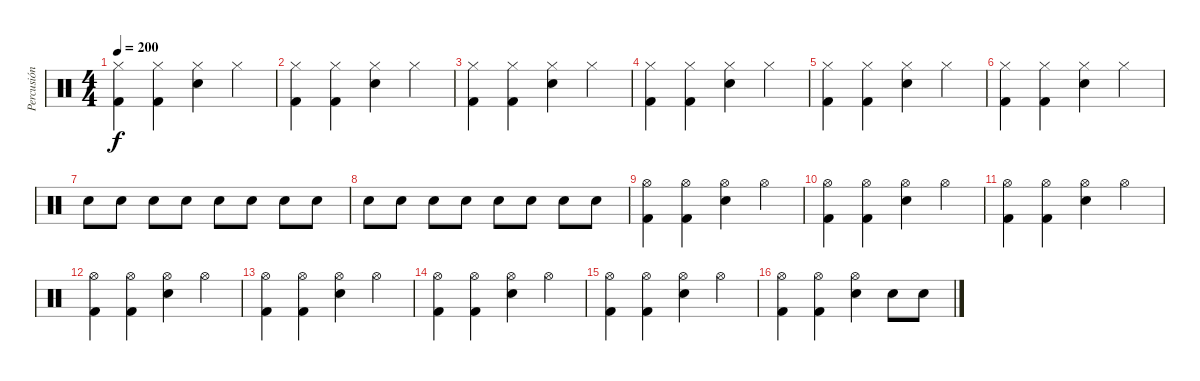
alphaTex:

\track ("Percusión" "Percusión") {instrument percussion}
\staff {score}
\articulation defaults
\ts (4 4)
\tempo 200
\clef neutral
\ks c
("Hi-Hat (closed)" "Kick (hit) 2").4{dy f} ("Hi-Hat (closed)" "Kick (hit) 2").4 ("Hi-Hat (closed)" "Electric Snare (hit)").4 "Hi-Hat (closed)".4 |
("Hi-Hat (closed)" "Kick (hit) 2").4 ("Hi-Hat (closed)" "Kick (hit) 2").4 ("Hi-Hat (closed)" "Electric Snare (hit)").4 "Hi-Hat (closed)".4 |
("Hi-Hat (closed)" "Kick (hit) 2").4 ("Hi-Hat (closed)" "Kick (hit) 2").4 ("Hi-Hat (closed)" "Electric Snare (hit)").4 "Hi-Hat (closed)".4 |
("Hi-Hat (closed)" "Kick (hit) 2").4 ("Hi-Hat (closed)" "Kick (hit) 2").4 ("Hi-Hat (closed)" "Electric Snare (hit)").4 "Hi-Hat (closed)".4 |
("Hi-Hat (closed)" "Kick (hit) 2").4 ("Hi-Hat (closed)" "Kick (hit) 2").4 ("Hi-Hat (closed)" "Electric Snare (hit)").4 "Hi-Hat (closed)".4 |
("Hi-Hat (closed)" "Kick (hit) 2").4 ("Hi-Hat (closed)" "Kick (hit) 2").4 ("Hi-Hat (closed)" "Electric Snare (hit)").4 "Hi-Hat (closed)".4 |
"Electric Snare (hit)".8 "Electric Snare (hit)".8 "Electric Snare (hit)".8 "Electric Snare (hit)".8 "Electric Snare (hit)".8 "Electric Snare (hit)".8 "Electric Snare (hit)".8 "Electric Snare (hit)".8 |
"Electric Snare (hit)".8 "Electric Snare (hit)".8 "Electric Snare (hit)".8 "Electric Snare (hit)".8 "Electric Snare (hit)".8 "Electric Snare (hit)".8 "Electric Snare (hit)".8 "Electric Snare (hit)".8 |
("Hi-Hat (open)" "Kick (hit) 2").4 ("Hi-Hat (open)" "Kick (hit) 2").4 ("Hi-Hat (open)" "Electric Snare (hit)").4 "Hi-Hat (open)".4 |
("Hi-Hat (open)" "Kick (hit) 2").4 ("Hi-Hat (open)" "Kick (hit) 2").4 ("Hi-Hat (open)" "Electric Snare (hit)").4 "Hi-Hat (open)".4 |
("Hi-Hat (open)" "Kick (hit) 2").4 ("Hi-Hat (open)" "Kick (hit) 2").4 ("Hi-Hat (open)" "Electric Snare (hit)").4 "Hi-Hat (open)".4 |
("Hi-Hat (open)" "Kick (hit) 2").4 ("Hi-Hat (open)" "Kick (hit) 2").4 ("Hi-Hat (open)" "Electric Snare (hit)").4 "Hi-Hat (open)".4 |
("Hi-Hat (open)" "Kick (hit) 2").4 ("Hi-Hat (open)" "Kick (hit) 2").4 ("Hi-Hat (open)" "Electric Snare (hit)").4 "Hi-Hat (open)".4 |
("Hi-Hat (open)" "Kick (hit) 2").4 ("Hi-Hat (open)" "Kick (hit) 2").4 ("Hi-Hat (open)" "Electric Snare (hit)").4 "Hi-Hat (open)".4 |
("Hi-Hat (open)" "Kick (hit) 2").4 ("Hi-Hat (open)" "Kick (hit) 2").4 ("Hi-Hat (open)" "Electric Snare (hit)").4 "Hi-Hat (open)".4 |
("Hi-Hat (open)" "Kick (hit) 2").4 ("Hi-Hat (open)" "Kick (hit) 2").4 ("Hi-Hat (open)" "Electric Snare (hit)").4 "Electric Snare (hit)".8 "Electric Snare (hit)".8
